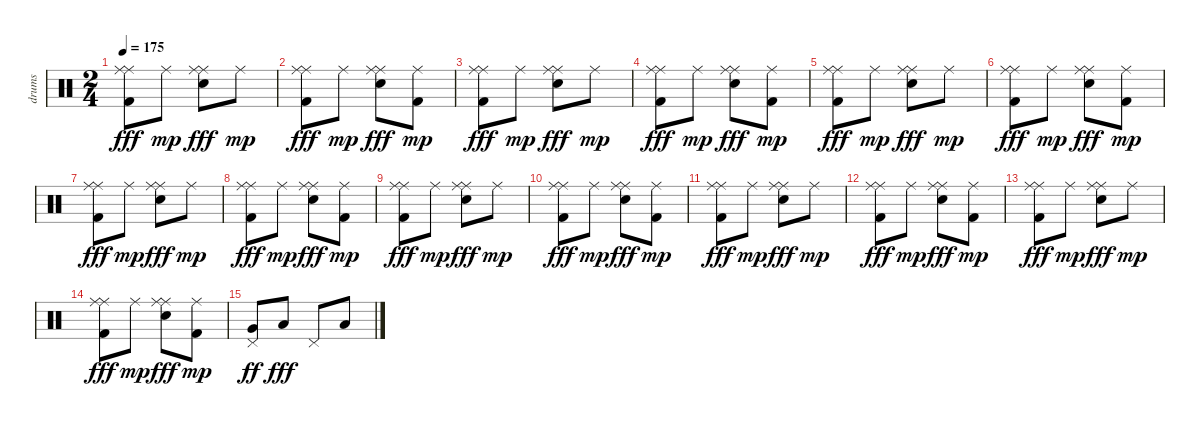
\track ("drums" "drums") {instrument percussion}
\staff {score}
\articulation defaults
\ts (2 4)
\tempo 175
\clef neutral
\ks c
("Ride (middle)" "Ride (middle)" "Kick (hit) 2").8{dy fff} "Ride (middle)".8{dy mp} ("Ride (middle)" "Ride (middle)" "Snare (hit) 2").8{dy fff} "Ride (middle)".8{dy mp} |
("Ride (middle)" "Ride (middle)" "Kick (hit) 2").8{dy fff} "Ride (middle)".8{dy mp} ("Ride (middle)" "Ride (middle)" "Snare (hit) 2").8{dy fff} ("Ride (middle)" "Kick (hit) 2").8{dy mp} |
("Ride (middle)" "Ride (middle)" "Kick (hit) 2").8{dy fff} "Ride (middle)".8{dy mp} ("Ride (middle)" "Ride (middle)" "Snare (hit) 2").8{dy fff} "Ride (middle)".8{dy mp} |
("Ride (middle)" "Ride (middle)" "Kick (hit) 2").8{dy fff} "Ride (middle)".8{dy mp} ("Ride (middle)" "Ride (middle)" "Snare (hit) 2").8{dy fff} ("Ride (middle)" "Kick (hit) 2").8{dy mp} |
("Ride (middle)" "Ride (middle)" "Kick (hit) 2").8{dy fff} "Ride (middle)".8{dy mp} ("Ride (middle)" "Ride (middle)" "Snare (hit) 2").8{dy fff} "Ride (middle)".8{dy mp} |
("Ride (middle)" "Ride (middle)" "Kick (hit) 2").8{dy fff} "Ride (middle)".8{dy mp} ("Ride (middle)" "Ride (middle)" "Snare (hit) 2").8{dy fff} ("Ride (middle)" "Kick (hit) 2").8{dy mp} |
("Ride (middle)" "Ride (middle)" "Kick (hit) 2").8{dy fff} "Ride (middle)".8{dy mp} ("Ride (middle)" "Ride (middle)" "Snare (hit) 2").8{dy fff} "Ride (middle)".8{dy mp} |
("Ride (middle)" "Ride (middle)" "Kick (hit) 2").8{dy fff} "Ride (middle)".8{dy mp} ("Ride (middle)" "Ride (middle)" "Snare (hit) 2").8{dy fff} ("Ride (middle)" "Kick (hit) 2").8{dy mp} |
("Ride (middle)" "Ride (middle)" "Kick (hit) 2").8{dy fff} "Ride (middle)".8{dy mp} ("Ride (middle)" "Ride (middle)" "Snare (hit) 2").8{dy fff} "Ride (middle)".8{dy mp} |
("Ride (middle)" "Ride (middle)" "Kick (hit) 2").8{dy fff} "Ride (middle)".8{dy mp} ("Ride (middle)" "Ride (middle)" "Snare (hit) 2").8{dy fff} ("Ride (middle)" "Kick (hit) 2").8{dy mp} |
("Ride (middle)" "Ride (middle)" "Kick (hit) 2").8{dy fff} "Ride (middle)".8{dy mp} ("Ride (middle)" "Ride (middle)" "Snare (hit) 2").8{dy fff} "Ride (middle)".8{dy mp} |
("Ride (middle)" "Ride (middle)" "Kick (hit) 2").8{dy fff} "Ride (middle)".8{dy mp} ("Ride (middle)" "Ride (middle)" "Snare (hit) 2").8{dy fff} ("Ride (middle)" "Kick (hit) 2").8{dy mp} |
("Ride (middle)" "Ride (middle)" "Kick (hit) 2").8{dy fff} "Ride (middle)".8{dy mp} ("Ride (middle)" "Ride (middle)" "Snare (hit) 2").8{dy fff} "Ride (middle)".8{dy mp} |
("Ride (middle)" "Ride (middle)" "Kick (hit) 2").8{dy fff} "Ride (middle)".8{dy mp} ("Ride (middle)" "Ride (middle)" "Snare (hit) 2").8{dy fff} ("Ride (middle)" "Kick (hit) 2").8{dy mp} |
("Pedal Hi-Hat (hit)" "Very Low Tom (hit)").8{dy ff} "Low Floor Tom (hit)".8{dy fff} "Pedal Hi-Hat (hit)".8 "Low Floor Tom (hit)".8
